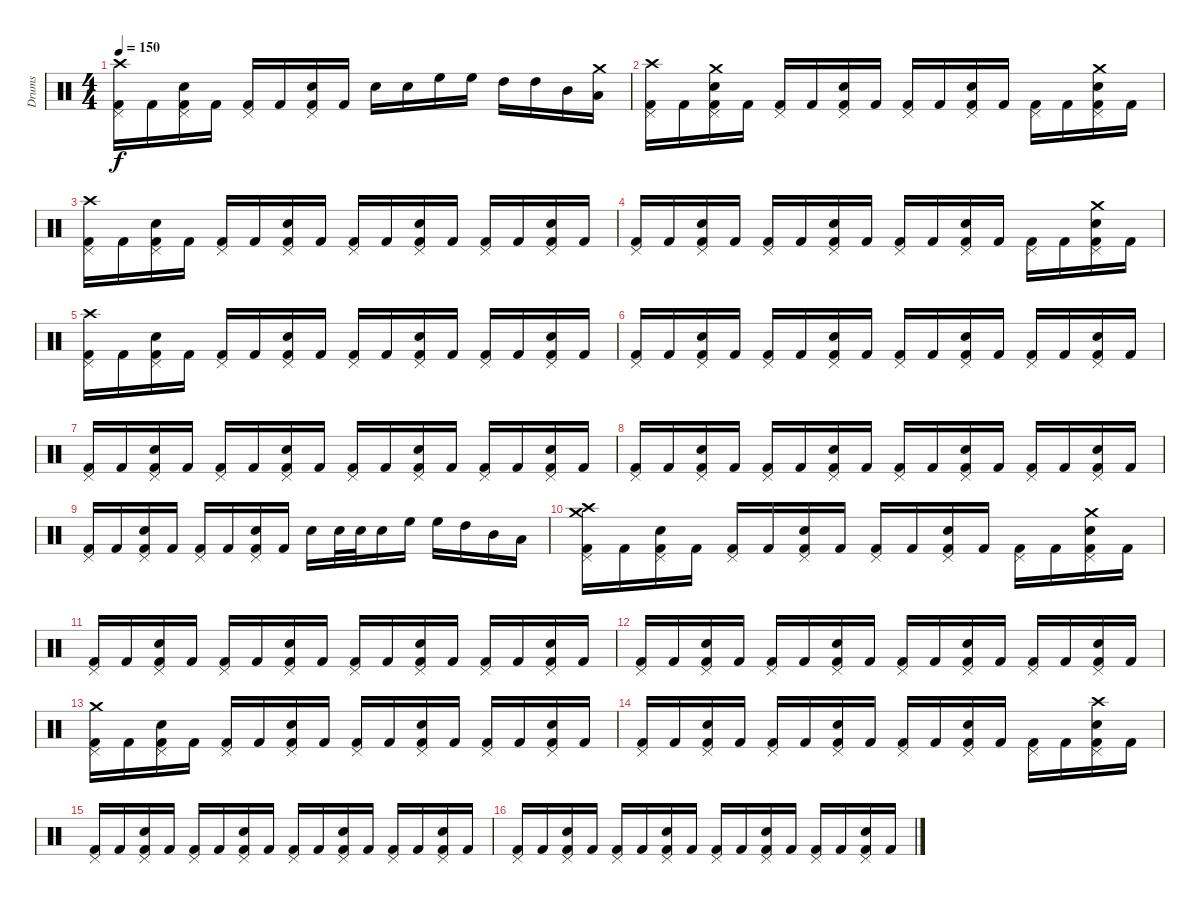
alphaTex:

\track ("Drums" "Drums") {instrument percussion}
\staff {score}
\articulation defaults
\ts (4 4)
\tempo 150
\clef neutral
\ks c
("Crash high (hit)" "Pedal Hi-Hat (hit)" "Kick (hit) 2").16{dy f} "Kick (hit) 2".16 ("Pedal Hi-Hat (hit)" "Kick (hit) 2" "Electric Snare (hit)").16 "Kick (hit) 2".16 ("Pedal Hi-Hat (hit)" "Kick (hit) 2").16 "Kick (hit) 2".16 ("Pedal Hi-Hat (hit)" "Kick (hit) 2" "Electric Snare (hit)").16 "Kick (hit) 2".16 "Electric Snare (hit)".16 "Electric Snare (hit)".16 "High Floor Tom (hit)".16 "High Floor Tom (hit)".16 "High Tom (hit)".16 "High Tom (hit)".16 "Mid Tom (hit)".16 ("Crash medium (hit)" "Low Tom (hit)").16 |
("Crash high (hit)" "Pedal Hi-Hat (hit)" "Kick (hit) 2").16 "Kick (hit) 2".16 ("Crash medium (hit)" "Pedal Hi-Hat (hit)" "Kick (hit) 2" "Electric Snare (hit)").16 "Kick (hit) 2".16 ("Pedal Hi-Hat (hit)" "Kick (hit) 2").16 "Kick (hit) 2".16 ("Pedal Hi-Hat (hit)" "Kick (hit) 2" "Electric Snare (hit)").16 "Kick (hit) 2".16 ("Pedal Hi-Hat (hit)" "Kick (hit) 2").16 "Kick (hit) 2".16 ("Pedal Hi-Hat (hit)" "Kick (hit) 2" "Electric Snare (hit)").16 "Kick (hit) 2".16 ("Pedal Hi-Hat (hit)" "Kick (hit) 2").16 "Kick (hit) 2".16 ("Crash medium (hit)" "Pedal Hi-Hat (hit)" "Kick (hit) 2" "Electric Snare (hit)").16 "Kick (hit) 2".16 |
("Crash high (hit)" "Pedal Hi-Hat (hit)" "Kick (hit) 2").16 "Kick (hit) 2".16 ("Pedal Hi-Hat (hit)" "Kick (hit) 2" "Electric Snare (hit)").16 "Kick (hit) 2".16 ("Pedal Hi-Hat (hit)" "Kick (hit) 2").16 "Kick (hit) 2".16 ("Pedal Hi-Hat (hit)" "Kick (hit) 2" "Electric Snare (hit)").16 "Kick (hit) 2".16 ("Pedal Hi-Hat (hit)" "Kick (hit) 2").16 "Kick (hit) 2".16 ("Pedal Hi-Hat (hit)" "Kick (hit) 2" "Electric Snare (hit)").16 "Kick (hit) 2".16 ("Pedal Hi-Hat (hit)" "Kick (hit) 2").16 "Kick (hit) 2".16 ("Pedal Hi-Hat (hit)" "Kick (hit) 2" "Electric Snare (hit)").16 "Kick (hit) 2".16 |
("Pedal Hi-Hat (hit)" "Kick (hit) 2").16 "Kick (hit) 2".16 ("Pedal Hi-Hat (hit)" "Kick (hit) 2" "Electric Snare (hit)").16 "Kick (hit) 2".16 ("Pedal Hi-Hat (hit)" "Kick (hit) 2").16 "Kick (hit) 2".16 ("Pedal Hi-Hat (hit)" "Kick (hit) 2" "Electric Snare (hit)").16 "Kick (hit) 2".16 ("Pedal Hi-Hat (hit)" "Kick (hit) 2").16 "Kick (hit) 2".16 ("Pedal Hi-Hat (hit)" "Kick (hit) 2" "Electric Snare (hit)").16 "Kick (hit) 2".16 ("Pedal Hi-Hat (hit)" "Kick (hit) 2").16 "Kick (hit) 2".16 ("Crash medium (hit)" "Pedal Hi-Hat (hit)" "Kick (hit) 2" "Electric Snare (hit)").16 "Kick (hit) 2".16 |
("Crash high (hit)" "Pedal Hi-Hat (hit)" "Kick (hit) 2").16 "Kick (hit) 2".16 ("Pedal Hi-Hat (hit)" "Kick (hit) 2" "Electric Snare (hit)").16 "Kick (hit) 2".16 ("Pedal Hi-Hat (hit)" "Kick (hit) 2").16 "Kick (hit) 2".16 ("Pedal Hi-Hat (hit)" "Kick (hit) 2" "Electric Snare (hit)").16 "Kick (hit) 2".16 ("Pedal Hi-Hat (hit)" "Kick (hit) 2").16 "Kick (hit) 2".16 ("Pedal Hi-Hat (hit)" "Kick (hit) 2" "Electric Snare (hit)").16 "Kick (hit) 2".16 ("Pedal Hi-Hat (hit)" "Kick (hit) 2").16 "Kick (hit) 2".16 ("Pedal Hi-Hat (hit)" "Kick (hit) 2" "Electric Snare (hit)").16 "Kick (hit) 2".16 |
("Pedal Hi-Hat (hit)" "Kick (hit) 2").16 "Kick (hit) 2".16 ("Pedal Hi-Hat (hit)" "Kick (hit) 2" "Electric Snare (hit)").16 "Kick (hit) 2".16 ("Pedal Hi-Hat (hit)" "Kick (hit) 2").16 "Kick (hit) 2".16 ("Pedal Hi-Hat (hit)" "Kick (hit) 2" "Electric Snare (hit)").16 "Kick (hit) 2".16 ("Pedal Hi-Hat (hit)" "Kick (hit) 2").16 "Kick (hit) 2".16 ("Pedal Hi-Hat (hit)" "Kick (hit) 2" "Electric Snare (hit)").16 "Kick (hit) 2".16 ("Pedal Hi-Hat (hit)" "Kick (hit) 2").16 "Kick (hit) 2".16 ("Pedal Hi-Hat (hit)" "Kick (hit) 2" "Electric Snare (hit)").16 "Kick (hit) 2".16 |
("Pedal Hi-Hat (hit)" "Kick (hit) 2").16 "Kick (hit) 2".16 ("Pedal Hi-Hat (hit)" "Kick (hit) 2" "Electric Snare (hit)").16 "Kick (hit) 2".16 ("Pedal Hi-Hat (hit)" "Kick (hit) 2").16 "Kick (hit) 2".16 ("Pedal Hi-Hat (hit)" "Kick (hit) 2" "Electric Snare (hit)").16 "Kick (hit) 2".16 ("Pedal Hi-Hat (hit)" "Kick (hit) 2").16 "Kick (hit) 2".16 ("Pedal Hi-Hat (hit)" "Kick (hit) 2" "Electric Snare (hit)").16 "Kick (hit) 2".16 ("Pedal Hi-Hat (hit)" "Kick (hit) 2").16 "Kick (hit) 2".16 ("Pedal Hi-Hat (hit)" "Kick (hit) 2" "Electric Snare (hit)").16 "Kick (hit) 2".16 |
("Pedal Hi-Hat (hit)" "Kick (hit) 2").16 "Kick (hit) 2".16 ("Pedal Hi-Hat (hit)" "Kick (hit) 2" "Electric Snare (hit)").16 "Kick (hit) 2".16 ("Pedal Hi-Hat (hit)" "Kick (hit) 2").16 "Kick (hit) 2".16 ("Pedal Hi-Hat (hit)" "Kick (hit) 2" "Electric Snare (hit)").16 "Kick (hit) 2".16 ("Pedal Hi-Hat (hit)" "Kick (hit) 2").16 "Kick (hit) 2".16 ("Pedal Hi-Hat (hit)" "Kick (hit) 2" "Electric Snare (hit)").16 "Kick (hit) 2".16 ("Pedal Hi-Hat (hit)" "Kick (hit) 2").16 "Kick (hit) 2".16 ("Pedal Hi-Hat (hit)" "Kick (hit) 2" "Electric Snare (hit)").16 "Kick (hit) 2".16 |
("Pedal Hi-Hat (hit)" "Kick (hit) 2").16 "Kick (hit) 2".16 ("Pedal Hi-Hat (hit)" "Kick (hit) 2" "Electric Snare (hit)").16 "Kick (hit) 2".16 ("Pedal Hi-Hat (hit)" "Kick (hit) 2").16 "Kick (hit) 2".16 ("Pedal Hi-Hat (hit)" "Kick (hit) 2" "Electric Snare (hit)").16 "Kick (hit) 2".16 "Electric Snare (hit)".16 "Electric Snare (hit)".32 "Electric Snare (hit)".32 "Electric Snare (hit)".16 "High Floor Tom (hit)".16 "High Floor Tom (hit)".16 "High Tom (hit)".16 "Mid Tom (hit)".16 "Low Tom (hit)".16 |
("Crash medium (hit)" "Crash high (hit)" "Pedal Hi-Hat (hit)" "Kick (hit) 2").16 "Kick (hit) 2".16 ("Pedal Hi-Hat (hit)" "Kick (hit) 2" "Electric Snare (hit)").16 "Kick (hit) 2".16 ("Pedal Hi-Hat (hit)" "Kick (hit) 2").16 "Kick (hit) 2".16 ("Pedal Hi-Hat (hit)" "Kick (hit) 2" "Electric Snare (hit)").16 "Kick (hit) 2".16 ("Pedal Hi-Hat (hit)" "Kick (hit) 2").16 "Kick (hit) 2".16 ("Pedal Hi-Hat (hit)" "Kick (hit) 2" "Electric Snare (hit)").16 "Kick (hit) 2".16 ("Pedal Hi-Hat (hit)" "Kick (hit) 2").16 "Kick (hit) 2".16 ("Crash medium (hit)" "Pedal Hi-Hat (hit)" "Kick (hit) 2" "Electric Snare (hit)").16 "Kick (hit) 2".16 |
("Pedal Hi-Hat (hit)" "Kick (hit) 2").16 "Kick (hit) 2".16 ("Pedal Hi-Hat (hit)" "Kick (hit) 2" "Electric Snare (hit)").16 "Kick (hit) 2".16 ("Pedal Hi-Hat (hit)" "Kick (hit) 2").16 "Kick (hit) 2".16 ("Pedal Hi-Hat (hit)" "Kick (hit) 2" "Electric Snare (hit)").16 "Kick (hit) 2".16 ("Pedal Hi-Hat (hit)" "Kick (hit) 2").16 "Kick (hit) 2".16 ("Pedal Hi-Hat (hit)" "Kick (hit) 2" "Electric Snare (hit)").16 "Kick (hit) 2".16 ("Pedal Hi-Hat (hit)" "Kick (hit) 2").16 "Kick (hit) 2".16 ("Pedal Hi-Hat (hit)" "Kick (hit) 2" "Electric Snare (hit)").16 "Kick (hit) 2".16 |
("Pedal Hi-Hat (hit)" "Kick (hit) 2").16 "Kick (hit) 2".16 ("Pedal Hi-Hat (hit)" "Kick (hit) 2" "Electric Snare (hit)").16 "Kick (hit) 2".16 ("Pedal Hi-Hat (hit)" "Kick (hit) 2").16 "Kick (hit) 2".16 ("Pedal Hi-Hat (hit)" "Kick (hit) 2" "Electric Snare (hit)").16 "Kick (hit) 2".16 ("Pedal Hi-Hat (hit)" "Kick (hit) 2").16 "Kick (hit) 2".16 ("Pedal Hi-Hat (hit)" "Kick (hit) 2" "Electric Snare (hit)").16 "Kick (hit) 2".16 ("Pedal Hi-Hat (hit)" "Kick (hit) 2").16 "Kick (hit) 2".16 ("Pedal Hi-Hat (hit)" "Kick (hit) 2" "Electric Snare (hit)").16 "Kick (hit) 2".16 |
("Crash medium (hit)" "Pedal Hi-Hat (hit)" "Kick (hit) 2").16 "Kick (hit) 2".16 ("Pedal Hi-Hat (hit)" "Kick (hit) 2" "Electric Snare (hit)").16 "Kick (hit) 2".16 ("Pedal Hi-Hat (hit)" "Kick (hit) 2").16 "Kick (hit) 2".16 ("Pedal Hi-Hat (hit)" "Kick (hit) 2" "Electric Snare (hit)").16 "Kick (hit) 2".16 ("Pedal Hi-Hat (hit)" "Kick (hit) 2").16 "Kick (hit) 2".16 ("Pedal Hi-Hat (hit)" "Kick (hit) 2" "Electric Snare (hit)").16 "Kick (hit) 2".16 ("Pedal Hi-Hat (hit)" "Kick (hit) 2").16 "Kick (hit) 2".16 ("Pedal Hi-Hat (hit)" "Kick (hit) 2" "Electric Snare (hit)").16 "Kick (hit) 2".16 |
("Pedal Hi-Hat (hit)" "Kick (hit) 2").16 "Kick (hit) 2".16 ("Pedal Hi-Hat (hit)" "Kick (hit) 2" "Electric Snare (hit)").16 "Kick (hit) 2".16 ("Pedal Hi-Hat (hit)" "Kick (hit) 2").16 "Kick (hit) 2".16 ("Pedal Hi-Hat (hit)" "Kick (hit) 2" "Electric Snare (hit)").16 "Kick (hit) 2".16 ("Pedal Hi-Hat (hit)" "Kick (hit) 2").16 "Kick (hit) 2".16 ("Pedal Hi-Hat (hit)" "Kick (hit) 2" "Electric Snare (hit)").16 "Kick (hit) 2".16 ("Pedal Hi-Hat (hit)" "Kick (hit) 2").16 "Kick (hit) 2".16 ("Crash high (hit)" "Pedal Hi-Hat (hit)" "Kick (hit) 2" "Electric Snare (hit)").16 "Kick (hit) 2".16 |
("Pedal Hi-Hat (hit)" "Kick (hit) 2").16 "Kick (hit) 2".16 ("Pedal Hi-Hat (hit)" "Kick (hit) 2" "Electric Snare (hit)").16 "Kick (hit) 2".16 ("Pedal Hi-Hat (hit)" "Kick (hit) 2").16 "Kick (hit) 2".16 ("Pedal Hi-Hat (hit)" "Kick (hit) 2" "Electric Snare (hit)").16 "Kick (hit) 2".16 ("Pedal Hi-Hat (hit)" "Kick (hit) 2").16 "Kick (hit) 2".16 ("Pedal Hi-Hat (hit)" "Kick (hit) 2" "Electric Snare (hit)").16 "Kick (hit) 2".16 ("Pedal Hi-Hat (hit)" "Kick (hit) 2").16 "Kick (hit) 2".16 ("Pedal Hi-Hat (hit)" "Kick (hit) 2" "Electric Snare (hit)").16 "Kick (hit) 2".16 |
("Pedal Hi-Hat (hit)" "Kick (hit) 2").16 "Kick (hit) 2".16 ("Pedal Hi-Hat (hit)" "Kick (hit) 2" "Electric Snare (hit)").16 "Kick (hit) 2".16 ("Pedal Hi-Hat (hit)" "Kick (hit) 2").16 "Kick (hit) 2".16 ("Pedal Hi-Hat (hit)" "Kick (hit) 2" "Electric Snare (hit)").16 "Kick (hit) 2".16 ("Pedal Hi-Hat (hit)" "Kick (hit) 2").16 "Kick (hit) 2".16 ("Pedal Hi-Hat (hit)" "Kick (hit) 2" "Electric Snare (hit)").16 "Kick (hit) 2".16 ("Pedal Hi-Hat (hit)" "Kick (hit) 2").16 "Kick (hit) 2".16 ("Pedal Hi-Hat (hit)" "Kick (hit) 2" "Electric Snare (hit)").16 "Kick (hit) 2".16
